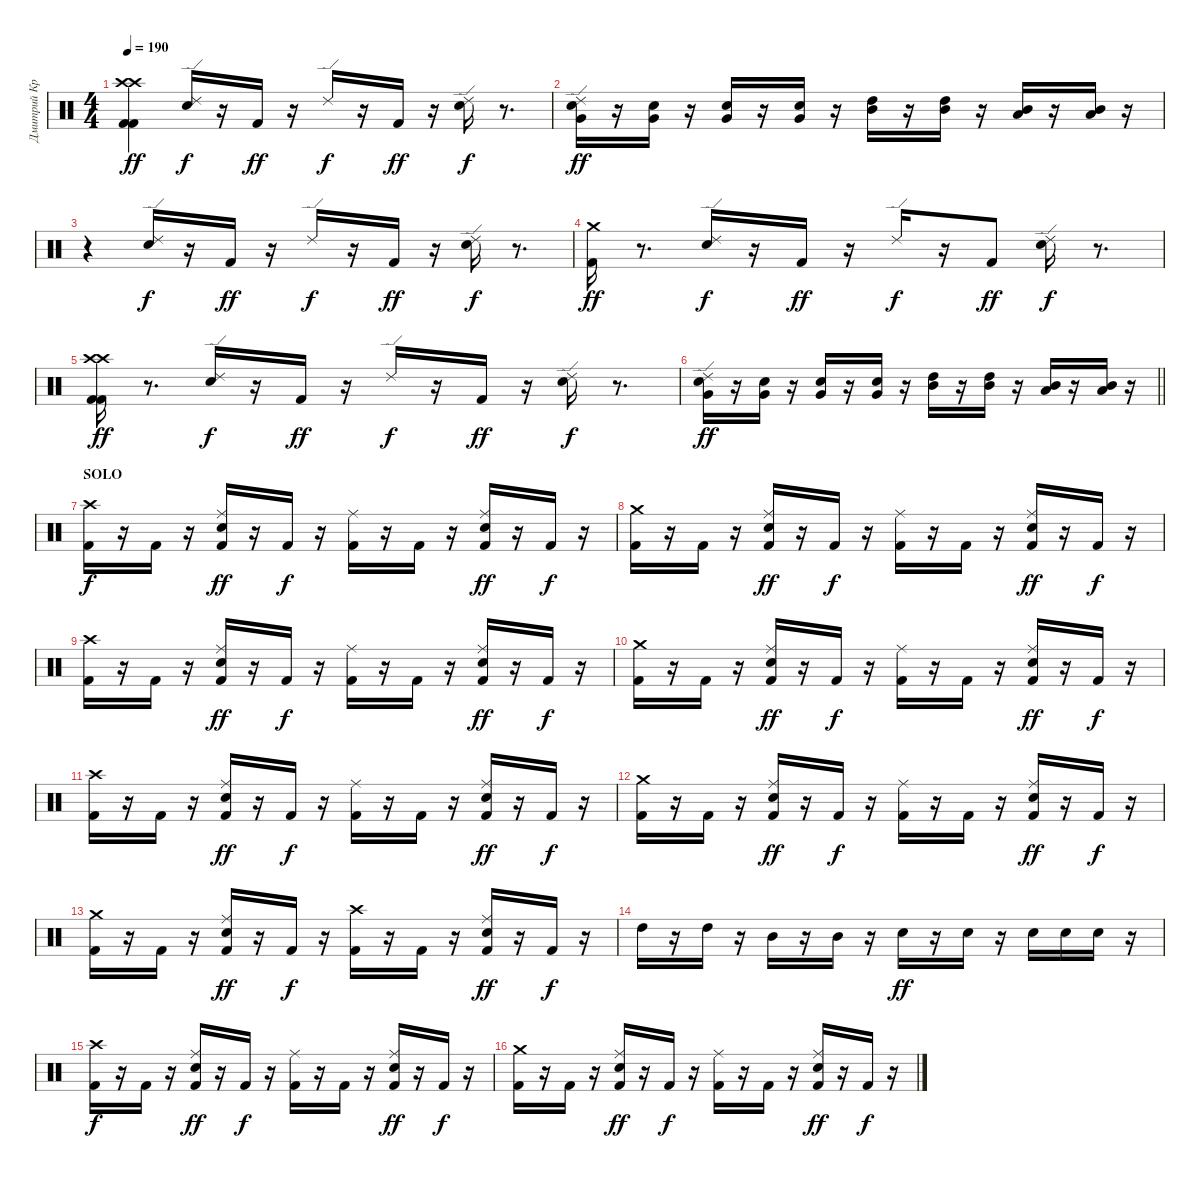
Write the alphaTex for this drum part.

\track ("Дмитрий Кривенков" "Дмитрий Кр") {instrument percussion}
\staff {score}
\articulation defaults
\ts (4 4)
\tempo 190
\clef neutral
\ks c
("Kick (hit) 2" "Crash high (hit)" "Kick (hit) 2" "Crash high (hit)").4{dy ff} ("Ride (edge) 2" "Electric Snare (hit)").16{dy f} r.16 "Kick (hit) 2".16{dy ff} r.16 "Ride (edge) 2".16{dy f} r.16 "Kick (hit) 2".16{dy ff} r.16 ("Electric Snare (hit)" "Ride (edge) 2").16{dy f} r.8{d} |
("Ride (edge) 2" "Very Low Tom (hit)" "Electric Snare (hit)").16{dy ff} r.16 ("Electric Snare (hit)" "Very Low Tom (hit)").16 r.16 ("Electric Snare (hit)" "Very Low Tom (hit)").16 r.16 ("Very Low Tom (hit)" "Electric Snare (hit)").16 r.16 ("High Tom (hit)" "Mid Tom (hit)").16 r.16 ("High Tom (hit)" "Mid Tom (hit)").16 r.16 ("Mid Tom (hit)" "Low Tom (hit)").16 r.16 ("Low Tom (hit)" "Mid Tom (hit)").16 r.16 |
r.4 ("Electric Snare (hit)" "Ride (edge) 2").16{dy f} r.16 "Kick (hit) 2".16{dy ff} r.16 "Ride (edge) 2".16{dy f} r.16 "Kick (hit) 2".16{dy ff} r.16 ("Electric Snare (hit)" "Ride (edge) 2").16{dy f} r.8{d} |
("Kick (hit) 2" "Crash medium (hit)").16{dy ff} r.8{d} ("Ride (edge) 2" "Electric Snare (hit)").16{dy f} r.16 "Kick (hit) 2".16{dy ff} r.16 "Ride (edge) 2".16{dy f} r.16 "Kick (hit) 2".8{dy ff} ("Electric Snare (hit)" "Ride (edge) 2").16{dy f} r.8{d} |
("Kick (hit) 2" "Crash high (hit)" "Kick (hit) 2" "Crash high (hit)").16{dy ff} r.8{d} ("Ride (edge) 2" "Electric Snare (hit)").16{dy f} r.16 "Kick (hit) 2".16{dy ff} r.16 "Ride (edge) 2".16{dy f} r.16 "Kick (hit) 2".16{dy ff} r.16 ("Electric Snare (hit)" "Ride (edge) 2").16{dy f} r.8{d} |
\barLineRight lightlight
("Ride (edge) 2" "Very Low Tom (hit)" "Electric Snare (hit)").16{dy ff} r.16 ("Electric Snare (hit)" "Very Low Tom (hit)").16 r.16 ("Electric Snare (hit)" "Very Low Tom (hit)").16 r.16 ("Very Low Tom (hit)" "Electric Snare (hit)").16 r.16 ("High Tom (hit)" "Mid Tom (hit)").16 r.16 ("High Tom (hit)" "Mid Tom (hit)").16 r.16 ("Mid Tom (hit)" "Low Tom (hit)").16 r.16 ("Low Tom (hit)" "Mid Tom (hit)").16 r.16 |
\section ("" "SOLO")
("Crash high (hit)" "Kick (hit) 2").16{dy f} r.16 "Kick (hit) 2".16 r.16 ("Ride (middle)" "Kick (hit) 2" "Snare (hit) 2").16{dy ff} r.16 "Kick (hit) 2".16{dy f} r.16 ("Ride (middle)" "Kick (hit) 2").16 r.16 "Kick (hit) 2".16 r.16 ("Ride (middle)" "Kick (hit) 2" "Snare (hit) 2").16{dy ff} r.16 "Kick (hit) 2".16{dy f} r.16 |
("Crash medium (hit)" "Kick (hit) 2").16 r.16 "Kick (hit) 2".16 r.16 ("Ride (middle)" "Snare (hit) 2" "Kick (hit) 2").16{dy ff} r.16 "Kick (hit) 2".16{dy f} r.16 ("Ride (middle)" "Kick (hit) 2").16 r.16 "Kick (hit) 2".16 r.16 ("Ride (middle)" "Snare (hit) 2" "Kick (hit) 2").16{dy ff} r.16 "Kick (hit) 2".16{dy f} r.16 |
("Crash high (hit)" "Kick (hit) 2").16 r.16 "Kick (hit) 2".16 r.16 ("Ride (middle)" "Kick (hit) 2" "Snare (hit) 2").16{dy ff} r.16 "Kick (hit) 2".16{dy f} r.16 ("Ride (middle)" "Kick (hit) 2").16 r.16 "Kick (hit) 2".16 r.16 ("Ride (middle)" "Kick (hit) 2" "Snare (hit) 2").16{dy ff} r.16 "Kick (hit) 2".16{dy f} r.16 |
("Crash medium (hit)" "Kick (hit) 2").16 r.16 "Kick (hit) 2".16 r.16 ("Ride (middle)" "Snare (hit) 2" "Kick (hit) 2").16{dy ff} r.16 "Kick (hit) 2".16{dy f} r.16 ("Ride (middle)" "Kick (hit) 2").16 r.16 "Kick (hit) 2".16 r.16 ("Ride (middle)" "Snare (hit) 2" "Kick (hit) 2").16{dy ff} r.16 "Kick (hit) 2".16{dy f} r.16 |
("Crash high (hit)" "Kick (hit) 2").16 r.16 "Kick (hit) 2".16 r.16 ("Ride (middle)" "Kick (hit) 2" "Snare (hit) 2").16{dy ff} r.16 "Kick (hit) 2".16{dy f} r.16 ("Ride (middle)" "Kick (hit) 2").16 r.16 "Kick (hit) 2".16 r.16 ("Ride (middle)" "Kick (hit) 2" "Snare (hit) 2").16{dy ff} r.16 "Kick (hit) 2".16{dy f} r.16 |
("Crash medium (hit)" "Kick (hit) 2").16 r.16 "Kick (hit) 2".16 r.16 ("Ride (middle)" "Snare (hit) 2" "Kick (hit) 2").16{dy ff} r.16 "Kick (hit) 2".16{dy f} r.16 ("Ride (middle)" "Kick (hit) 2").16 r.16 "Kick (hit) 2".16 r.16 ("Ride (middle)" "Snare (hit) 2" "Kick (hit) 2").16{dy ff} r.16 "Kick (hit) 2".16{dy f} r.16 |
("Crash medium (hit)" "Kick (hit) 2").16 r.16 "Kick (hit) 2".16 r.16 ("Ride (middle)" "Snare (hit) 2" "Kick (hit) 2").16{dy ff} r.16 "Kick (hit) 2".16{dy f} r.16 ("Crash high (hit)" "Kick (hit) 2").16 r.16 "Kick (hit) 2".16 r.16 ("Ride (middle)" "Snare (hit) 2" "Kick (hit) 2").16{dy ff} r.16 "Kick (hit) 2".16{dy f} r.16 |
"High Tom (hit)".16 r.16 "High Tom (hit)".16 r.16 "Mid Tom (hit)".16 r.16 "Mid Tom (hit)".16 r.16 "Snare (hit) 2".16{dy ff} r.16 "Snare (hit) 2".16 r.16 "Snare (hit) 2".16 "Snare (hit) 2".16 "Snare (hit) 2".16 r.16 |
("Crash high (hit)" "Kick (hit) 2").16{dy f} r.16 "Kick (hit) 2".16 r.16 ("Ride (middle)" "Kick (hit) 2" "Snare (hit) 2").16{dy ff} r.16 "Kick (hit) 2".16{dy f} r.16 ("Ride (middle)" "Kick (hit) 2").16 r.16 "Kick (hit) 2".16 r.16 ("Ride (middle)" "Kick (hit) 2" "Snare (hit) 2").16{dy ff} r.16 "Kick (hit) 2".16{dy f} r.16 |
("Crash medium (hit)" "Kick (hit) 2").16 r.16 "Kick (hit) 2".16 r.16 ("Ride (middle)" "Snare (hit) 2" "Kick (hit) 2").16{dy ff} r.16 "Kick (hit) 2".16{dy f} r.16 ("Ride (middle)" "Kick (hit) 2").16 r.16 "Kick (hit) 2".16 r.16 ("Ride (middle)" "Snare (hit) 2" "Kick (hit) 2").16{dy ff} r.16 "Kick (hit) 2".16{dy f} r.16
